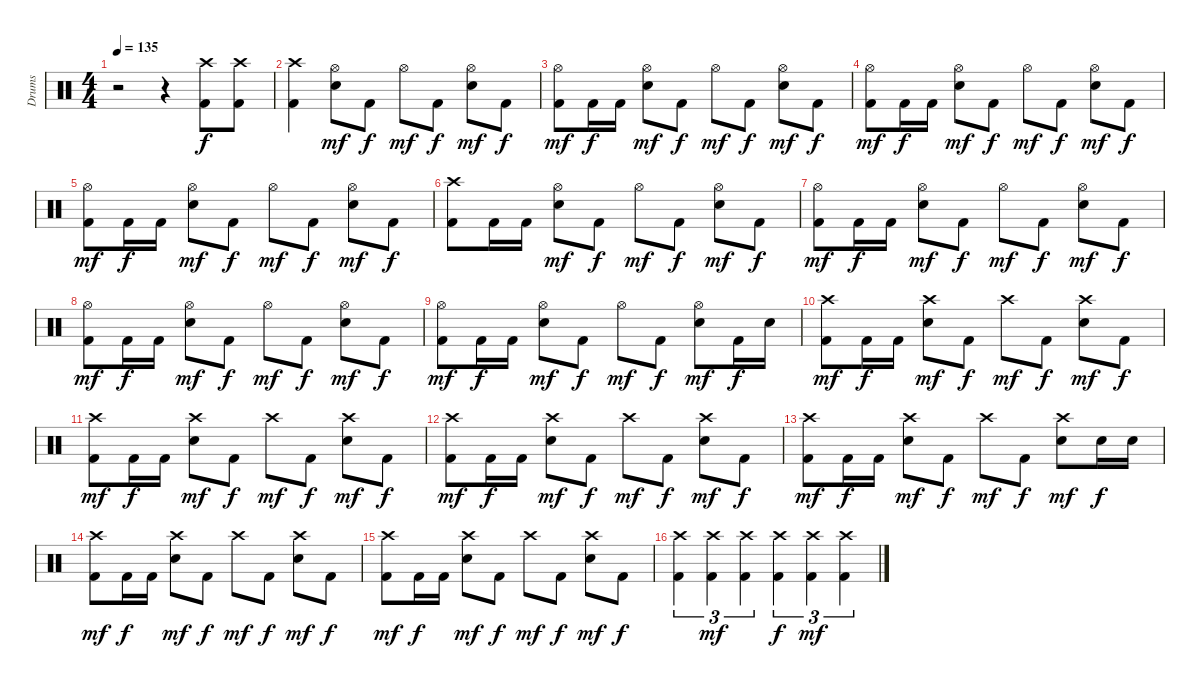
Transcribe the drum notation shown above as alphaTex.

\track ("Drums" "Drums") {instrument percussion}
\staff {score}
\articulation defaults
\ts (4 4)
\tempo 135
\clef neutral
\ks c
r.2{dy f} r.4 ("Kick (hit) 2" "Crash high (hit)").8 ("Kick (hit) 2" "Crash high (hit)").8 |
("Kick (hit) 2" "Crash high (hit)").4 ("Electric Snare (hit)" "Hi-Hat (open)").8{dy mf} "Kick (hit) 2".8{dy f} "Hi-Hat (open)".8{dy mf} "Kick (hit) 2".8{dy f} ("Electric Snare (hit)" "Hi-Hat (open)").8{dy mf} "Kick (hit) 2".8{dy f} |
("Kick (hit) 2" "Hi-Hat (open)").8{dy mf} "Kick (hit) 2".16{dy f} "Kick (hit) 2".16 ("Electric Snare (hit)" "Hi-Hat (open)").8{dy mf} "Kick (hit) 2".8{dy f} "Hi-Hat (open)".8{dy mf} "Kick (hit) 2".8{dy f} ("Electric Snare (hit)" "Hi-Hat (open)").8{dy mf} "Kick (hit) 2".8{dy f} |
("Kick (hit) 2" "Hi-Hat (open)").8{dy mf} "Kick (hit) 2".16{dy f} "Kick (hit) 2".16 ("Electric Snare (hit)" "Hi-Hat (open)").8{dy mf} "Kick (hit) 2".8{dy f} "Hi-Hat (open)".8{dy mf} "Kick (hit) 2".8{dy f} ("Electric Snare (hit)" "Hi-Hat (open)").8{dy mf} "Kick (hit) 2".8{dy f} |
("Kick (hit) 2" "Hi-Hat (open)").8{dy mf} "Kick (hit) 2".16{dy f} "Kick (hit) 2".16 ("Electric Snare (hit)" "Hi-Hat (open)").8{dy mf} "Kick (hit) 2".8{dy f} "Hi-Hat (open)".8{dy mf} "Kick (hit) 2".8{dy f} ("Electric Snare (hit)" "Hi-Hat (open)").8{dy mf} "Kick (hit) 2".8{dy f} |
("Kick (hit) 2" "Crash high (hit)").8 "Kick (hit) 2".16 "Kick (hit) 2".16 ("Electric Snare (hit)" "Hi-Hat (open)").8{dy mf} "Kick (hit) 2".8{dy f} "Hi-Hat (open)".8{dy mf} "Kick (hit) 2".8{dy f} ("Electric Snare (hit)" "Hi-Hat (open)").8{dy mf} "Kick (hit) 2".8{dy f} |
("Kick (hit) 2" "Hi-Hat (open)").8{dy mf} "Kick (hit) 2".16{dy f} "Kick (hit) 2".16 ("Electric Snare (hit)" "Hi-Hat (open)").8{dy mf} "Kick (hit) 2".8{dy f} "Hi-Hat (open)".8{dy mf} "Kick (hit) 2".8{dy f} ("Electric Snare (hit)" "Hi-Hat (open)").8{dy mf} "Kick (hit) 2".8{dy f} |
("Kick (hit) 2" "Hi-Hat (open)").8{dy mf} "Kick (hit) 2".16{dy f} "Kick (hit) 2".16 ("Electric Snare (hit)" "Hi-Hat (open)").8{dy mf} "Kick (hit) 2".8{dy f} "Hi-Hat (open)".8{dy mf} "Kick (hit) 2".8{dy f} ("Electric Snare (hit)" "Hi-Hat (open)").8{dy mf} "Kick (hit) 2".8{dy f} |
("Kick (hit) 2" "Hi-Hat (open)").8{dy mf} "Kick (hit) 2".16{dy f} "Kick (hit) 2".16 ("Electric Snare (hit)" "Hi-Hat (open)").8{dy mf} "Kick (hit) 2".8{dy f} "Hi-Hat (open)".8{dy mf} "Kick (hit) 2".8{dy f} ("Electric Snare (hit)" "Hi-Hat (open)").8{dy mf} "Kick (hit) 2".16{dy f} "Electric Snare (hit)".16 |
("Kick (hit) 2" "Crash high (hit)").8{dy mf} "Kick (hit) 2".16{dy f} "Kick (hit) 2".16 ("Electric Snare (hit)" "Crash high (hit)").8{dy mf} "Kick (hit) 2".8{dy f} "Crash high (hit)".8{dy mf} "Kick (hit) 2".8{dy f} ("Electric Snare (hit)" "Crash high (hit)").8{dy mf} "Kick (hit) 2".8{dy f} |
("Kick (hit) 2" "Crash high (hit)").8{dy mf} "Kick (hit) 2".16{dy f} "Kick (hit) 2".16 ("Electric Snare (hit)" "Crash high (hit)").8{dy mf} "Kick (hit) 2".8{dy f} "Crash high (hit)".8{dy mf} "Kick (hit) 2".8{dy f} ("Electric Snare (hit)" "Crash high (hit)").8{dy mf} "Kick (hit) 2".8{dy f} |
("Kick (hit) 2" "Crash high (hit)").8{dy mf} "Kick (hit) 2".16{dy f} "Kick (hit) 2".16 ("Electric Snare (hit)" "Crash high (hit)").8{dy mf} "Kick (hit) 2".8{dy f} "Crash high (hit)".8{dy mf} "Kick (hit) 2".8{dy f} ("Electric Snare (hit)" "Crash high (hit)").8{dy mf} "Kick (hit) 2".8{dy f} |
("Kick (hit) 2" "Crash high (hit)").8{dy mf} "Kick (hit) 2".16{dy f} "Kick (hit) 2".16 ("Electric Snare (hit)" "Crash high (hit)").8{dy mf} "Kick (hit) 2".8{dy f} "Crash high (hit)".8{dy mf} "Kick (hit) 2".8{dy f} ("Electric Snare (hit)" "Crash high (hit)").8{dy mf} "Electric Snare (hit)".16{dy f} "Electric Snare (hit)".16 |
("Kick (hit) 2" "Crash high (hit)").8{dy mf} "Kick (hit) 2".16{dy f} "Kick (hit) 2".16 ("Electric Snare (hit)" "Crash high (hit)").8{dy mf} "Kick (hit) 2".8{dy f} "Crash high (hit)".8{dy mf} "Kick (hit) 2".8{dy f} ("Electric Snare (hit)" "Crash high (hit)").8{dy mf} "Kick (hit) 2".8{dy f} |
("Kick (hit) 2" "Crash high (hit)").8{dy mf} "Kick (hit) 2".16{dy f} "Kick (hit) 2".16 ("Electric Snare (hit)" "Crash high (hit)").8{dy mf} "Kick (hit) 2".8{dy f} "Crash high (hit)".8{dy mf} "Kick (hit) 2".8{dy f} ("Electric Snare (hit)" "Crash high (hit)").8{dy mf} "Kick (hit) 2".8{dy f} |
("Kick (hit) 2" "Crash high (hit)").4{tu (3 2)} ("Kick (hit) 2" "Crash high (hit)").4{tu (3 2) dy mf} ("Kick (hit) 2" "Crash high (hit)").4{tu (3 2)} ("Kick (hit) 2" "Crash high (hit)").4{tu (3 2) dy f} ("Kick (hit) 2" "Crash high (hit)").4{tu (3 2) dy mf} ("Kick (hit) 2" "Crash high (hit)").4{tu (3 2)}
